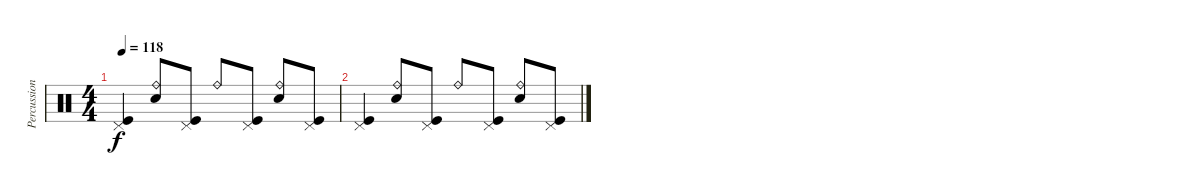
\track ("Percussions" "Percussion") {instrument percussion}
\staff {score}
\articulation defaults
\ts (4 4)
\tempo 118
\clef neutral
\ks c
("Pedal Hi-Hat (hit)" "Kick (hit)").4{dy f} ("Ride (bell)" "Snare (hit) 2").8 ("Pedal Hi-Hat (hit)" "Kick (hit)").8 "Ride (bell)".8 ("Pedal Hi-Hat (hit)" "Kick (hit)").8 ("Ride (bell)" "Snare (hit) 2").8 ("Pedal Hi-Hat (hit)" "Kick (hit)").8 |
("Pedal Hi-Hat (hit)" "Kick (hit)").4 ("Ride (bell)" "Snare (hit) 2").8 ("Pedal Hi-Hat (hit)" "Kick (hit)").8 "Ride (bell)".8 ("Pedal Hi-Hat (hit)" "Kick (hit)").8 ("Ride (bell)" "Snare (hit) 2").8 ("Pedal Hi-Hat (hit)" "Kick (hit)").8
